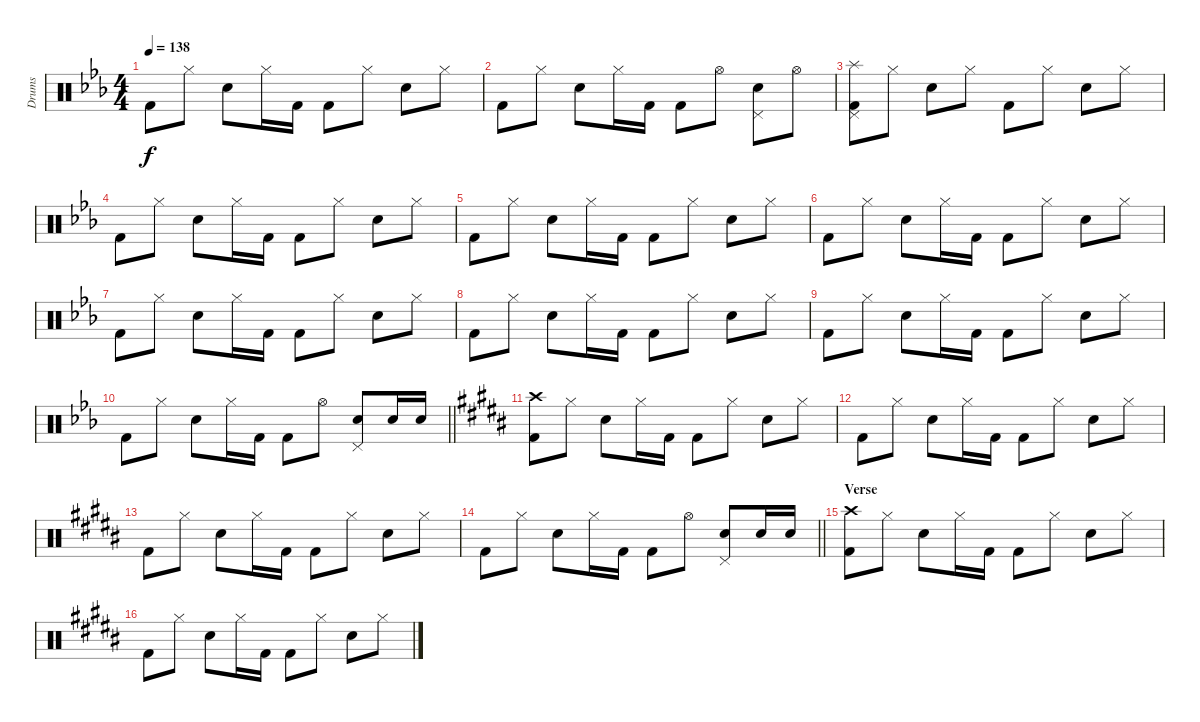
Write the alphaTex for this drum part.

\track ("Drums" "Drums") {instrument percussion}
\staff {score}
\articulation defaults
\ts (4 4)
\tempo 138
\clef neutral
\ks eb "Kick (hit) 2".8{dy f} "Hi-Hat (closed)".8 "Electric Snare (hit)".8 "Hi-Hat (closed)".16 "Kick (hit) 2".16 "Kick (hit) 2".8 "Hi-Hat (closed)".8 "Electric Snare (hit)".8 "Hi-Hat (closed)".8
|
"Kick (hit) 2".8 "Hi-Hat (closed)".8 "Electric Snare (hit)".8 "Hi-Hat (closed)".16 "Kick (hit) 2".16 "Kick (hit) 2".8 "Hi-Hat (open)".8 ("Electric Snare (hit)" "Pedal Hi-Hat (hit)").8 "Hi-Hat (open)".8 |
("Splash (hit)" "Pedal Hi-Hat (hit)" "Kick (hit) 2").8 "Hi-Hat (closed)".8 "Electric Snare (hit)".8 "Hi-Hat (closed)".8 "Kick (hit) 2".8 "Hi-Hat (closed)".8 "Electric Snare (hit)".8 "Hi-Hat (closed)".8 |
"Kick (hit) 2".8 "Hi-Hat (closed)".8 "Electric Snare (hit)".8 "Hi-Hat (closed)".16 "Kick (hit) 2".16 "Kick (hit) 2".8 "Hi-Hat (closed)".8 "Electric Snare (hit)".8 "Hi-Hat (closed)".8 |
"Kick (hit) 2".8 "Hi-Hat (closed)".8 "Electric Snare (hit)".8 "Hi-Hat (closed)".16 "Kick (hit) 2".16 "Kick (hit) 2".8 "Hi-Hat (closed)".8 "Electric Snare (hit)".8 "Hi-Hat (closed)".8 |
"Kick (hit) 2".8 "Hi-Hat (closed)".8 "Electric Snare (hit)".8 "Hi-Hat (closed)".16 "Kick (hit) 2".16 "Kick (hit) 2".8 "Hi-Hat (closed)".8 "Electric Snare (hit)".8 "Hi-Hat (closed)".8 |
"Kick (hit) 2".8 "Hi-Hat (closed)".8 "Electric Snare (hit)".8 "Hi-Hat (closed)".16 "Kick (hit) 2".16 "Kick (hit) 2".8 "Hi-Hat (closed)".8 "Electric Snare (hit)".8 "Hi-Hat (closed)".8 |
"Kick (hit) 2".8 "Hi-Hat (closed)".8 "Electric Snare (hit)".8 "Hi-Hat (closed)".16 "Kick (hit) 2".16 "Kick (hit) 2".8 "Hi-Hat (closed)".8 "Electric Snare (hit)".8 "Hi-Hat (closed)".8 |
"Kick (hit) 2".8 "Hi-Hat (closed)".8 "Electric Snare (hit)".8 "Hi-Hat (closed)".16 "Kick (hit) 2".16 "Kick (hit) 2".8 "Hi-Hat (closed)".8 "Electric Snare (hit)".8 "Hi-Hat (closed)".8 |
\barLineRight lightlight "Kick (hit) 2".8 "Hi-Hat (closed)".8 "Electric Snare (hit)".8 "Hi-Hat (closed)".16 "Kick (hit) 2".16 "Kick (hit) 2".8 "Hi-Hat (open)".8
("Electric Snare (hit)" "Pedal Hi-Hat (hit)").8 "Electric Snare (hit)".16 "Electric Snare (hit)".16 |
\section ("" "")
\ks g#minor
("Crash high (hit)" "Kick (hit) 2").8 "Hi-Hat (closed)".8 "Electric Snare (hit)".8 "Hi-Hat (closed)".16 "Kick (hit) 2".16 "Kick (hit) 2".8 "Hi-Hat (closed)".8 "Electric Snare (hit)".8 "Hi-Hat (closed)".8 |
"Kick (hit) 2".8 "Hi-Hat (closed)".8 "Electric Snare (hit)".8 "Hi-Hat (closed)".16 "Kick (hit) 2".16 "Kick (hit) 2".8 "Hi-Hat (closed)".8 "Electric Snare (hit)".8 "Hi-Hat (closed)".8 |
"Kick (hit) 2".8 "Hi-Hat (closed)".8 "Electric Snare (hit)".8 "Hi-Hat (closed)".16 "Kick (hit) 2".16 "Kick (hit) 2".8 "Hi-Hat (closed)".8 "Electric Snare (hit)".8 "Hi-Hat (closed)".8 |
\barLineRight lightlight "Kick (hit) 2".8 "Hi-Hat (closed)".8 "Electric Snare (hit)".8 "Hi-Hat (closed)".16 "Kick (hit) 2".16 "Kick (hit) 2".8 "Hi-Hat (open)".8
("Electric Snare (hit)" "Pedal Hi-Hat (hit)").8 "Electric Snare (hit)".16 "Electric Snare (hit)".16 |
\section ("" "Verse")
("Crash high (hit)" "Kick (hit) 2").8 "Hi-Hat (closed)".8 "Electric Snare (hit)".8 "Hi-Hat (closed)".16 "Kick (hit) 2".16 "Kick (hit) 2".8 "Hi-Hat (closed)".8 "Electric Snare (hit)".8 "Hi-Hat (closed)".8 |
"Kick (hit) 2".8 "Hi-Hat (closed)".8 "Electric Snare (hit)".8 "Hi-Hat (closed)".16 "Kick (hit) 2".16 "Kick (hit) 2".8 "Hi-Hat (closed)".8 "Electric Snare (hit)".8 "Hi-Hat (closed)".8
